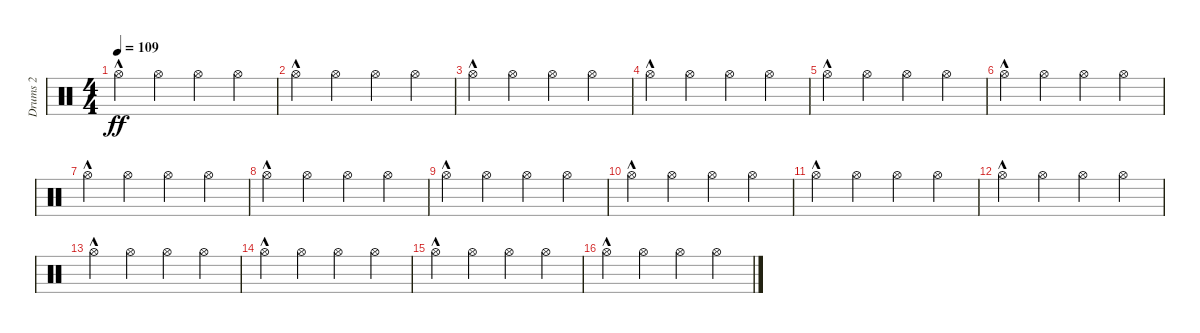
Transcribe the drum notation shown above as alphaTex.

\track ("Drums 2" "Drums 2") {instrument percussion}
\staff {score}
\articulation defaults
\ts (4 4)
\tempo 109
\clef neutral
\ks c "Hi-Hat (open)"{hac}.4{dy ff} "Hi-Hat (open)".4 "Hi-Hat (open)".4 "Hi-Hat (open)".4
|
"Hi-Hat (open)"{hac}.4 "Hi-Hat (open)".4 "Hi-Hat (open)".4 "Hi-Hat (open)".4 |
"Hi-Hat (open)"{hac}.4 "Hi-Hat (open)".4 "Hi-Hat (open)".4 "Hi-Hat (open)".4 |
"Hi-Hat (open)"{hac}.4 "Hi-Hat (open)".4 "Hi-Hat (open)".4 "Hi-Hat (open)".4 |
"Hi-Hat (open)"{hac}.4 "Hi-Hat (open)".4 "Hi-Hat (open)".4 "Hi-Hat (open)".4 |
"Hi-Hat (open)"{hac}.4 "Hi-Hat (open)".4 "Hi-Hat (open)".4 "Hi-Hat (open)".4 |
"Hi-Hat (open)"{hac}.4 "Hi-Hat (open)".4 "Hi-Hat (open)".4 "Hi-Hat (open)".4 |
"Hi-Hat (open)"{hac}.4 "Hi-Hat (open)".4 "Hi-Hat (open)".4 "Hi-Hat (open)".4 |
"Hi-Hat (open)"{hac}.4 "Hi-Hat (open)".4 "Hi-Hat (open)".4 "Hi-Hat (open)".4 |
"Hi-Hat (open)"{hac}.4 "Hi-Hat (open)".4 "Hi-Hat (open)".4 "Hi-Hat (open)".4 |
"Hi-Hat (open)"{hac}.4 "Hi-Hat (open)".4 "Hi-Hat (open)".4 "Hi-Hat (open)".4 |
"Hi-Hat (open)"{hac}.4 "Hi-Hat (open)".4 "Hi-Hat (open)".4 "Hi-Hat (open)".4 |
"Hi-Hat (open)"{hac}.4 "Hi-Hat (open)".4 "Hi-Hat (open)".4 "Hi-Hat (open)".4 |
"Hi-Hat (open)"{hac}.4 "Hi-Hat (open)".4 "Hi-Hat (open)".4 "Hi-Hat (open)".4 |
"Hi-Hat (open)"{hac}.4 "Hi-Hat (open)".4 "Hi-Hat (open)".4 "Hi-Hat (open)".4 |
"Hi-Hat (open)"{hac}.4 "Hi-Hat (open)".4 "Hi-Hat (open)".4 "Hi-Hat (open)".4
